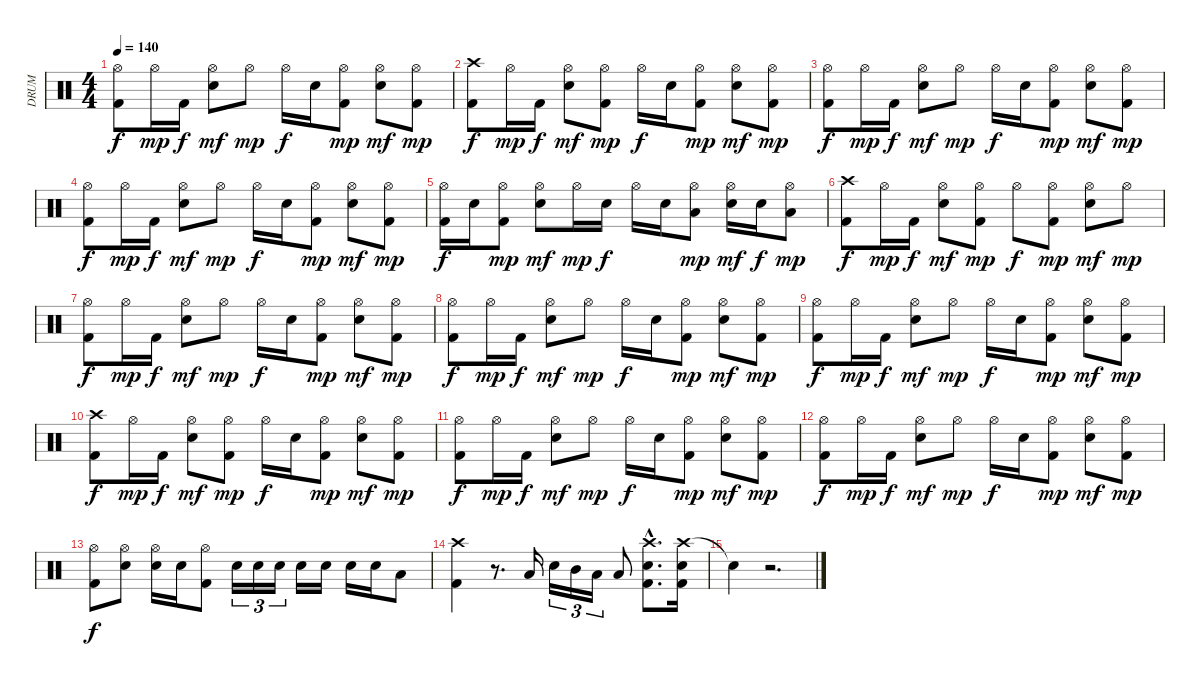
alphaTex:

\track ("DRUM" "DRUM") {instrument percussion}
\staff {score}
\articulation defaults
\ts (4 4)
\tempo 140
\clef neutral
\ks c
("Hi-Hat (open)" "Kick (hit) 2").8{dy f} "Hi-Hat (open)".16{dy mp} "Kick (hit) 2".16{dy f} ("Hi-Hat (open)" "Electric Snare (hit)").8{dy mf} "Hi-Hat (open)".8{dy mp} "Hi-Hat (open)".16{dy f} "Electric Snare (hit)".16 ("Hi-Hat (open)" "Kick (hit) 2").8{dy mp} ("Hi-Hat (open)" "Electric Snare (hit)").8{dy mf} ("Hi-Hat (open)" "Kick (hit) 2").8{dy mp} |
("Crash high (hit)" "Kick (hit) 2").8{dy f} "Hi-Hat (open)".16{dy mp} "Kick (hit) 2".16{dy f} ("Hi-Hat (open)" "Electric Snare (hit)").8{dy mf} ("Hi-Hat (open)" "Kick (hit) 2").8{dy mp} "Hi-Hat (open)".16{dy f} "Electric Snare (hit)".16 ("Hi-Hat (open)" "Kick (hit) 2").8{dy mp} ("Hi-Hat (open)" "Electric Snare (hit)").8{dy mf} ("Hi-Hat (open)" "Kick (hit) 2").8{dy mp} |
("Hi-Hat (open)" "Kick (hit) 2").8{dy f} "Hi-Hat (open)".16{dy mp} "Kick (hit) 2".16{dy f} ("Hi-Hat (open)" "Electric Snare (hit)").8{dy mf} "Hi-Hat (open)".8{dy mp} "Hi-Hat (open)".16{dy f} "Electric Snare (hit)".16 ("Hi-Hat (open)" "Kick (hit) 2").8{dy mp} ("Hi-Hat (open)" "Electric Snare (hit)").8{dy mf} ("Hi-Hat (open)" "Kick (hit) 2").8{dy mp} |
("Hi-Hat (open)" "Kick (hit) 2").8{dy f} "Hi-Hat (open)".16{dy mp} "Kick (hit) 2".16{dy f} ("Hi-Hat (open)" "Electric Snare (hit)").8{dy mf} "Hi-Hat (open)".8{dy mp} "Hi-Hat (open)".16{dy f} "Electric Snare (hit)".16 ("Hi-Hat (open)" "Kick (hit) 2").8{dy mp} ("Hi-Hat (open)" "Electric Snare (hit)").8{dy mf} ("Hi-Hat (open)" "Kick (hit) 2").8{dy mp} |
("Hi-Hat (open)" "Kick (hit) 2").16{dy f} "Electric Snare (hit)".16 ("Hi-Hat (open)" "Kick (hit) 2").8{dy mp} ("Hi-Hat (open)" "Electric Snare (hit)").8{dy mf} "Hi-Hat (open)".16{dy mp} "Electric Snare (hit)".16{dy f} "Hi-Hat (open)".16 "Electric Snare (hit)".16 ("Hi-Hat (open)" "Low Tom (hit)").8{dy mp} ("Hi-Hat (open)" "Electric Snare (hit)").16{dy mf} "Electric Snare (hit)".16{dy f} ("Hi-Hat (open)" "Low Tom (hit)").8{dy mp} |
("Crash high (hit)" "Kick (hit) 2").8{dy f} "Hi-Hat (open)".16{dy mp} "Kick (hit) 2".16{dy f} ("Hi-Hat (open)" "Electric Snare (hit)").8{dy mf} ("Hi-Hat (open)" "Kick (hit) 2").8{dy mp} "Hi-Hat (open)".8{dy f} ("Hi-Hat (open)" "Kick (hit) 2").8{dy mp} ("Hi-Hat (open)" "Electric Snare (hit)").8{dy mf} "Hi-Hat (open)".8{dy mp} |
("Hi-Hat (open)" "Kick (hit) 2").8{dy f} "Hi-Hat (open)".16{dy mp} "Kick (hit) 2".16{dy f} ("Hi-Hat (open)" "Electric Snare (hit)").8{dy mf} "Hi-Hat (open)".8{dy mp} "Hi-Hat (open)".16{dy f} "Electric Snare (hit)".16 ("Hi-Hat (open)" "Kick (hit) 2").8{dy mp} ("Hi-Hat (open)" "Electric Snare (hit)").8{dy mf} ("Hi-Hat (open)" "Kick (hit) 2").8{dy mp} |
("Hi-Hat (open)" "Kick (hit) 2").8{dy f} "Hi-Hat (open)".16{dy mp} "Kick (hit) 2".16{dy f} ("Hi-Hat (open)" "Electric Snare (hit)").8{dy mf} "Hi-Hat (open)".8{dy mp} "Hi-Hat (open)".16{dy f} "Electric Snare (hit)".16 ("Hi-Hat (open)" "Kick (hit) 2").8{dy mp} ("Hi-Hat (open)" "Electric Snare (hit)").8{dy mf} ("Hi-Hat (open)" "Kick (hit) 2").8{dy mp} |
("Hi-Hat (open)" "Kick (hit) 2").8{dy f} "Hi-Hat (open)".16{dy mp} "Kick (hit) 2".16{dy f} ("Hi-Hat (open)" "Electric Snare (hit)").8{dy mf} "Hi-Hat (open)".8{dy mp} "Hi-Hat (open)".16{dy f} "Electric Snare (hit)".16 ("Hi-Hat (open)" "Kick (hit) 2").8{dy mp} ("Hi-Hat (open)" "Electric Snare (hit)").8{dy mf} ("Hi-Hat (open)" "Kick (hit) 2").8{dy mp} |
("Crash high (hit)" "Kick (hit) 2").8{dy f} "Hi-Hat (open)".16{dy mp} "Kick (hit) 2".16{dy f} ("Hi-Hat (open)" "Electric Snare (hit)").8{dy mf} ("Hi-Hat (open)" "Kick (hit) 2").8{dy mp} "Hi-Hat (open)".16{dy f} "Electric Snare (hit)".16 ("Hi-Hat (open)" "Kick (hit) 2").8{dy mp} ("Hi-Hat (open)" "Electric Snare (hit)").8{dy mf} ("Hi-Hat (open)" "Kick (hit) 2").8{dy mp} |
("Hi-Hat (open)" "Kick (hit) 2").8{dy f} "Hi-Hat (open)".16{dy mp} "Kick (hit) 2".16{dy f} ("Hi-Hat (open)" "Electric Snare (hit)").8{dy mf} "Hi-Hat (open)".8{dy mp} "Hi-Hat (open)".16{dy f} "Electric Snare (hit)".16 ("Hi-Hat (open)" "Kick (hit) 2").8{dy mp} ("Hi-Hat (open)" "Electric Snare (hit)").8{dy mf} ("Hi-Hat (open)" "Kick (hit) 2").8{dy mp} |
("Hi-Hat (open)" "Kick (hit) 2").8{dy f} "Hi-Hat (open)".16{dy mp} "Kick (hit) 2".16{dy f} ("Hi-Hat (open)" "Electric Snare (hit)").8{dy mf} "Hi-Hat (open)".8{dy mp} "Hi-Hat (open)".16{dy f} "Electric Snare (hit)".16 ("Hi-Hat (open)" "Kick (hit) 2").8{dy mp} ("Hi-Hat (open)" "Electric Snare (hit)").8{dy mf} ("Hi-Hat (open)" "Kick (hit) 2").8{dy mp} |
("Hi-Hat (open)" "Kick (hit) 2").8{dy f} ("Hi-Hat (open)" "Electric Snare (hit)").8 ("Hi-Hat (open)" "Electric Snare (hit)").16 "Electric Snare (hit)".16 ("Hi-Hat (open)" "Kick (hit) 2").8 "Electric Snare (hit)".16{tu (3 2)} "Electric Snare (hit)".16{tu (3 2)} "Electric Snare (hit)".16{tu (3 2)} "Electric Snare (hit)".16 "Electric Snare (hit)".16 "Electric Snare (hit)".16 "Electric Snare (hit)".16 "Low Floor Tom (hit)".8 |
("Crash high (hit)" "Kick (hit) 2").4 r.8{d} "Low Tom (hit)".16 "Electric Snare (hit)".16{tu (3 2)} "Mid Tom (hit)".16{tu (3 2)} "Low Tom (hit)".16{tu (3 2)} "Low Floor Tom (hit)".8 ("Crash high (hit)"{hac} "Electric Snare (hit)"{hac} "Kick (hit) 2"{hac}).8{d} ("Crash high (hit)" "Electric Snare (hit)" "Kick (hit) 2").16 |
"Snare (hit)"{t}.4 r.2{d}
